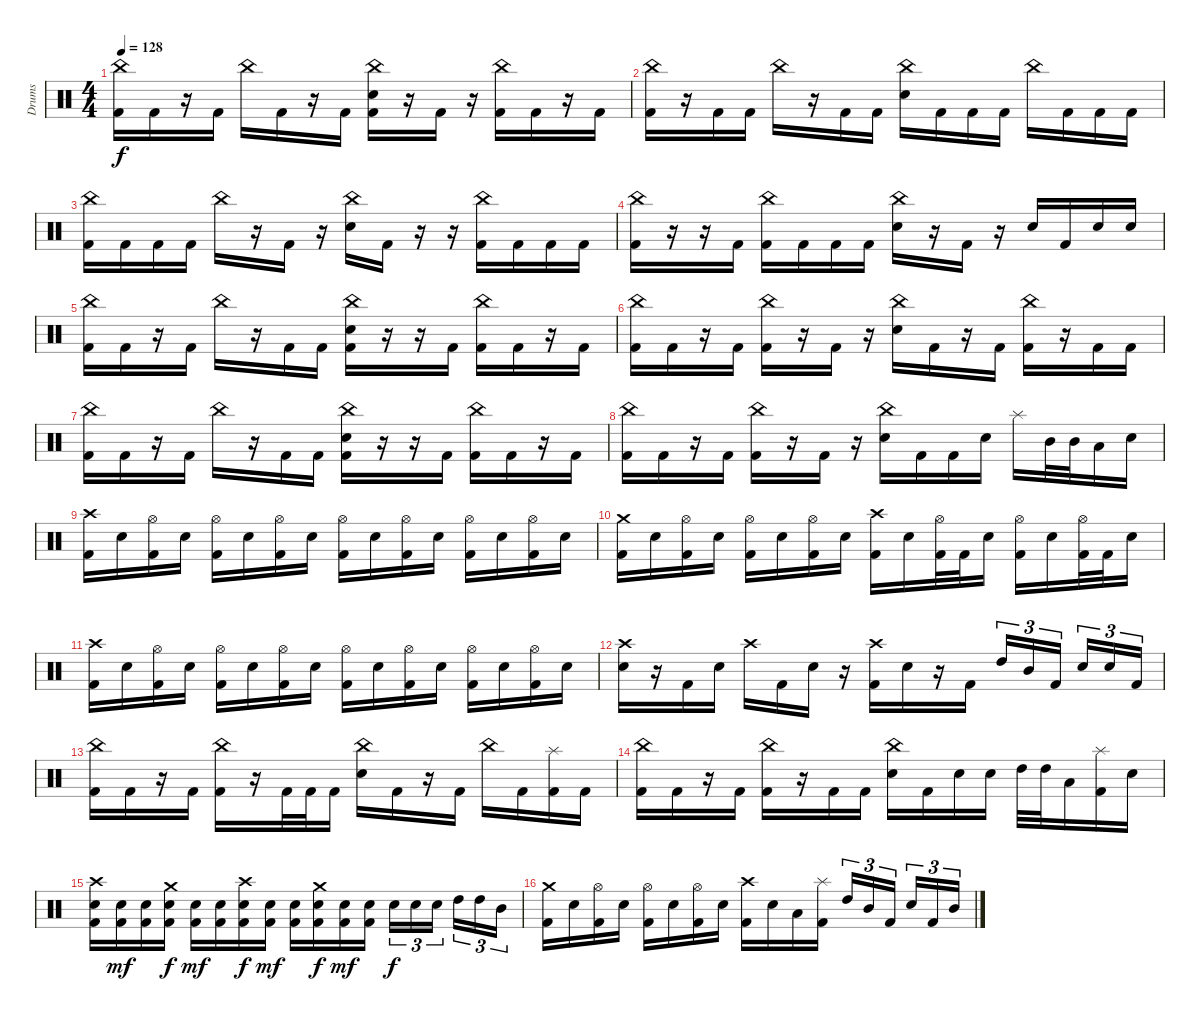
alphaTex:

\track ("Drums" "Drums") {instrument percussion}
\staff {score}
\articulation defaults
\ts (4 4)
\tempo 128
\clef neutral
\ks c
("China (hit)" "Kick (hit) 2").16{dy f} "Kick (hit) 2".16 r.16 "Kick (hit) 2".16 "China (hit)".16 "Kick (hit) 2".16 r.16 "Kick (hit) 2".16 ("China (hit)" "Electric Snare (hit)" "Kick (hit) 2").16 r.16 "Kick (hit) 2".16 r.16 ("China (hit)" "Kick (hit) 2").16 "Kick (hit) 2".16 r.16 "Kick (hit) 2".16 |
("China (hit)" "Kick (hit) 2").16 r.16 "Kick (hit) 2".16 "Kick (hit) 2".16 "China (hit)".16 r.16 "Kick (hit) 2".16 "Kick (hit) 2".16 ("China (hit)" "Electric Snare (hit)").16 "Kick (hit) 2".16 "Kick (hit) 2".16 "Kick (hit) 2".16 "China (hit)".16 "Kick (hit) 2".16 "Kick (hit) 2".16 "Kick (hit) 2".16 |
("China (hit)" "Kick (hit) 2").16 "Kick (hit) 2".16 "Kick (hit) 2".16 "Kick (hit) 2".16 "China (hit)".16 r.16 "Kick (hit) 2".16 r.16 ("China (hit)" "Electric Snare (hit)").16 "Kick (hit) 2".16 r.16 r.16 ("China (hit)" "Kick (hit) 2").16 "Kick (hit) 2".16 "Kick (hit) 2".16 "Kick (hit) 2".16 |
("China (hit)" "Kick (hit) 2").16 r.16 r.16 "Kick (hit) 2".16 ("China (hit)" "Kick (hit) 2").16 "Kick (hit) 2".16 "Kick (hit) 2".16 "Kick (hit) 2".16 ("China (hit)" "Electric Snare (hit)").16 r.16 "Kick (hit) 2".16 r.16 "Electric Snare (hit)".16 "Kick (hit) 2".16 "Electric Snare (hit)".16 "Electric Snare (hit)".16 |
("China (hit)" "Kick (hit) 2").16 "Kick (hit) 2".16 r.16 "Kick (hit) 2".16 "China (hit)".16 r.16 "Kick (hit) 2".16 "Kick (hit) 2".16 ("China (hit)" "Electric Snare (hit)" "Kick (hit) 2").16 r.16 r.16 "Kick (hit) 2".16 ("China (hit)" "Kick (hit) 2").16 "Kick (hit) 2".16 r.16 "Kick (hit) 2".16 |
("China (hit)" "Kick (hit) 2").16 "Kick (hit) 2".16 r.16 "Kick (hit) 2".16 ("China (hit)" "Kick (hit) 2").16 r.16 "Kick (hit) 2".16 r.16 ("China (hit)" "Electric Snare (hit)").16 "Kick (hit) 2".16 r.16 "Kick (hit) 2".16 ("China (hit)" "Kick (hit) 2").16 r.16 "Kick (hit) 2".16 "Kick (hit) 2".16 |
("China (hit)" "Kick (hit) 2").16 "Kick (hit) 2".16 r.16 "Kick (hit) 2".16 "China (hit)".16 r.16 "Kick (hit) 2".16 "Kick (hit) 2".16 ("China (hit)" "Electric Snare (hit)" "Kick (hit) 2").16 r.16 r.16 "Kick (hit) 2".16 ("China (hit)" "Kick (hit) 2").16 "Kick (hit) 2".16 r.16 "Kick (hit) 2".16 |
("China (hit)" "Kick (hit) 2").16 "Kick (hit) 2".16 r.16 "Kick (hit) 2".16 ("China (hit)" "Kick (hit) 2").16 r.16 "Kick (hit) 2".16 r.16 ("China (hit)" "Electric Snare (hit)").16 "Kick (hit) 2".16 "Kick (hit) 2".16 "Electric Snare (hit)".16 "Splash (hit)".16 "Mid Tom (hit)".32 "Mid Tom (hit)".32 "Low Tom (hit)".16 "Electric Snare (hit)".16 |
("Crash high (hit)" "Kick (hit) 2").16 "Electric Snare (hit)".16 ("Hi-Hat (open)" "Kick (hit) 2").16 "Electric Snare (hit)".16 ("Hi-Hat (open)" "Kick (hit) 2").16 "Electric Snare (hit)".16 ("Hi-Hat (open)" "Kick (hit) 2").16 "Electric Snare (hit)".16 ("Hi-Hat (open)" "Kick (hit) 2").16 "Electric Snare (hit)".16 ("Hi-Hat (open)" "Kick (hit) 2").16 "Electric Snare (hit)".16 ("Hi-Hat (open)" "Kick (hit) 2").16 "Electric Snare (hit)".16 ("Hi-Hat (open)" "Kick (hit) 2").16 "Electric Snare (hit)".16 |
("Crash medium (hit)" "Kick (hit) 2").16 "Electric Snare (hit)".16 ("Hi-Hat (open)" "Kick (hit) 2").16 "Electric Snare (hit)".16 ("Hi-Hat (open)" "Kick (hit) 2").16 "Electric Snare (hit)".16 ("Hi-Hat (open)" "Kick (hit) 2").16 "Electric Snare (hit)".16 ("Crash high (hit)" "Kick (hit) 2").16 "Electric Snare (hit)".16 ("Hi-Hat (open)" "Kick (hit) 2").32 "Kick (hit) 2".32 "Electric Snare (hit)".16 ("Hi-Hat (open)" "Kick (hit) 2").16 "Electric Snare (hit)".16 ("Hi-Hat (open)" "Kick (hit) 2").32 "Kick (hit) 2".32 "Electric Snare (hit)".16 |
("Crash high (hit)" "Kick (hit) 2").16 "Electric Snare (hit)".16 ("Hi-Hat (open)" "Kick (hit) 2").16 "Electric Snare (hit)".16 ("Hi-Hat (open)" "Kick (hit) 2").16 "Electric Snare (hit)".16 ("Hi-Hat (open)" "Kick (hit) 2").16 "Electric Snare (hit)".16 ("Hi-Hat (open)" "Kick (hit) 2").16 "Electric Snare (hit)".16 ("Hi-Hat (open)" "Kick (hit) 2").16 "Electric Snare (hit)".16 ("Hi-Hat (open)" "Kick (hit) 2").16 "Electric Snare (hit)".16 ("Hi-Hat (open)" "Kick (hit) 2").16 "Electric Snare (hit)".16 |
("Crash high (hit)" "Electric Snare (hit)").16 r.16 "Kick (hit) 2".16 "Electric Snare (hit)".16 "Crash high (hit)".16 "Kick (hit) 2".16 "Electric Snare (hit)".16 r.16 ("Crash high (hit)" "Kick (hit) 2").16 "Electric Snare (hit)".16 r.16 "Kick (hit) 2".16 "High Tom (hit)".16{tu (3 2)} "Mid Tom (hit)".16{tu (3 2)} "Kick (hit) 2".16{tu (3 2)} "Electric Snare (hit)".16{tu (3 2)} "Electric Snare (hit)".16{tu (3 2)} "Kick (hit) 2".16{tu (3 2)} |
("China (hit)" "Kick (hit) 2").16 "Kick (hit) 2".16 r.16 "Kick (hit) 2".16 ("China (hit)" "Kick (hit) 2").16 r.16 "Kick (hit) 2".32 "Kick (hit) 2".32 "Kick (hit) 2".16 ("China (hit)" "Electric Snare (hit)").16 "Kick (hit) 2".16 r.16 "Kick (hit) 2".16 "China (hit)".16 "Kick (hit) 2".16 ("Splash (hit)" "Kick (hit) 2").16 "Kick (hit) 2".16 |
("China (hit)" "Kick (hit) 2").16 "Kick (hit) 2".16 r.16 "Kick (hit) 2".16 ("China (hit)" "Kick (hit) 2").16 r.16 "Kick (hit) 2".16 "Kick (hit) 2".16 ("China (hit)" "Electric Snare (hit)").16 "Kick (hit) 2".16 "Electric Snare (hit)".16 "Electric Snare (hit)".16 "High Tom (hit)".32 "High Tom (hit)".32 "Low Tom (hit)".16 ("Splash (hit)" "Kick (hit) 2").16 "Electric Snare (hit)".16 |
("Crash high (hit)" "Electric Snare (hit)" "Kick (hit) 2").16 ("Electric Snare (hit)" "Kick (hit) 2").16{dy mf} ("Electric Snare (hit)" "Kick (hit) 2").16 ("Crash medium (hit)" "Electric Snare (hit)" "Kick (hit) 2").16{dy f} ("Electric Snare (hit)" "Kick (hit) 2").16{dy mf} ("Electric Snare (hit)" "Kick (hit) 2").16 ("Crash high (hit)" "Electric Snare (hit)" "Kick (hit) 2").16{dy f} ("Electric Snare (hit)" "Kick (hit) 2").16{dy mf} ("Electric Snare (hit)" "Kick (hit) 2").16 ("Crash medium (hit)" "Electric Snare (hit)" "Kick (hit) 2").16{dy f} ("Electric Snare (hit)" "Kick (hit) 2").16{dy mf} ("Electric Snare (hit)" "Kick (hit) 2").16 "Electric Snare (hit)".16{tu (3 2) dy f} "Electric Snare (hit)".16{tu (3 2)} "Electric Snare (hit)".16{tu (3 2)} "High Tom (hit)".16{tu (3 2)} "High Tom (hit)".16{tu (3 2)} "Mid Tom (hit)".16{tu (3 2)} |
("Crash medium (hit)" "Kick (hit) 2").16 "Electric Snare (hit)".16 ("Hi-Hat (open)" "Kick (hit) 2").16 "Electric Snare (hit)".16 ("Hi-Hat (open)" "Kick (hit) 2").16 "Electric Snare (hit)".16 ("Hi-Hat (open)" "Kick (hit) 2").16 "Electric Snare (hit)".16 ("Crash high (hit)" "Kick (hit) 2").16 "Electric Snare (hit)".16 "Low Tom (hit)".16 ("Splash (hit)" "Kick (hit) 2").16 "High Tom (hit)".16{tu (3 2)} "Mid Tom (hit)".16{tu (3 2)} "Kick (hit) 2".16{tu (3 2)} "Electric Snare (hit)".16{tu (3 2)} "Kick (hit) 2".16{tu (3 2)} "Mid Tom (hit)".16{tu (3 2)}
